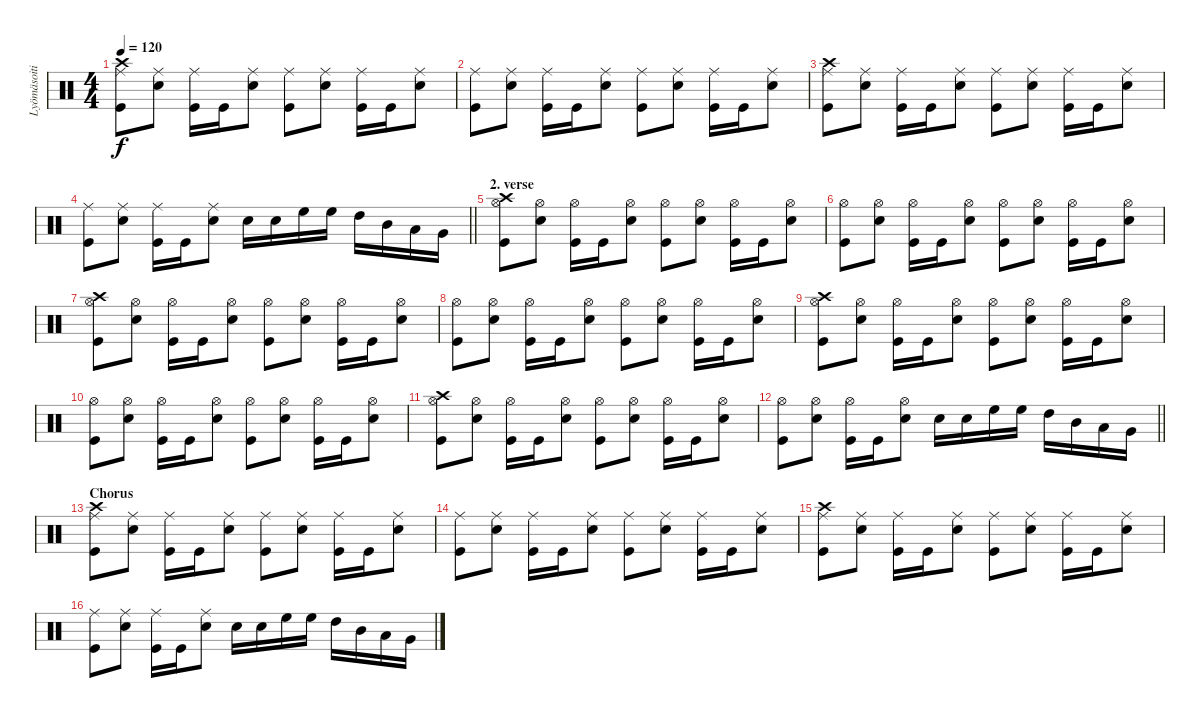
\track ("Lyömäsoitin" "Lyömäsoiti") {instrument percussion}
\staff {score}
\articulation defaults
\ts (4 4)
\tempo 120
\clef neutral
\ks c
("Ride (middle)" "Kick (hit)" "Crash high (hit)").8{dy f} ("Ride (middle)" "Snare (hit) 2").8 ("Ride (middle)" "Kick (hit)").16 "Kick (hit)".16 ("Ride (middle)" "Snare (hit) 2").8 ("Ride (middle)" "Kick (hit)").8 ("Ride (middle)" "Snare (hit) 2").8 ("Ride (middle)" "Kick (hit)").16 "Kick (hit)".16 ("Ride (middle)" "Snare (hit) 2").8 |
("Ride (middle)" "Kick (hit)").8 ("Ride (middle)" "Snare (hit) 2").8 ("Ride (middle)" "Kick (hit)").16 "Kick (hit)".16 ("Ride (middle)" "Snare (hit) 2").8 ("Ride (middle)" "Kick (hit)").8 ("Ride (middle)" "Snare (hit) 2").8 ("Ride (middle)" "Kick (hit)").16 "Kick (hit)".16 ("Ride (middle)" "Snare (hit) 2").8 |
("Ride (middle)" "Kick (hit)" "Crash high (hit)").8 ("Ride (middle)" "Snare (hit) 2").8 ("Ride (middle)" "Kick (hit)").16 "Kick (hit)".16 ("Ride (middle)" "Snare (hit) 2").8 ("Ride (middle)" "Kick (hit)").8 ("Ride (middle)" "Snare (hit) 2").8 ("Ride (middle)" "Kick (hit)").16 "Kick (hit)".16 ("Ride (middle)" "Snare (hit) 2").8 |
\barLineRight lightlight
("Ride (middle)" "Kick (hit)").8 ("Ride (middle)" "Snare (hit) 2").8 ("Ride (middle)" "Kick (hit)").16 "Kick (hit)".16 ("Ride (middle)" "Snare (hit) 2").8 "Snare (hit) 2".16 "Snare (hit) 2".16 "High Floor Tom (hit)".16 "High Floor Tom (hit)".16 "High Tom (hit)".16 "Mid Tom (hit)".16 "Low Tom (hit)".16 "Very Low Tom (hit)".16 |
\section ("" "2. verse")
("Hi-Hat (open)" "Kick (hit)" "Crash high (hit)").8 ("Hi-Hat (open)" "Snare (hit) 2").8 ("Hi-Hat (open)" "Kick (hit)").16 "Kick (hit)".16 ("Hi-Hat (open)" "Snare (hit) 2").8 ("Hi-Hat (open)" "Kick (hit)").8 ("Hi-Hat (open)" "Snare (hit) 2").8 ("Hi-Hat (open)" "Kick (hit)").16 "Kick (hit)".16 ("Hi-Hat (open)" "Snare (hit) 2").8 |
("Hi-Hat (open)" "Kick (hit)").8 ("Hi-Hat (open)" "Snare (hit) 2").8 ("Hi-Hat (open)" "Kick (hit)").16 "Kick (hit)".16 ("Hi-Hat (open)" "Snare (hit) 2").8 ("Hi-Hat (open)" "Kick (hit)").8 ("Hi-Hat (open)" "Snare (hit) 2").8 ("Hi-Hat (open)" "Kick (hit)").16 "Kick (hit)".16 ("Hi-Hat (open)" "Snare (hit) 2").8 |
("Hi-Hat (open)" "Kick (hit)" "Crash high (hit)").8 ("Hi-Hat (open)" "Snare (hit) 2").8 ("Hi-Hat (open)" "Kick (hit)").16 "Kick (hit)".16 ("Hi-Hat (open)" "Snare (hit) 2").8 ("Hi-Hat (open)" "Kick (hit)").8 ("Hi-Hat (open)" "Snare (hit) 2").8 ("Hi-Hat (open)" "Kick (hit)").16 "Kick (hit)".16 ("Hi-Hat (open)" "Snare (hit) 2").8 |
("Hi-Hat (open)" "Kick (hit)").8 ("Hi-Hat (open)" "Snare (hit) 2").8 ("Hi-Hat (open)" "Kick (hit)").16 "Kick (hit)".16 ("Hi-Hat (open)" "Snare (hit) 2").8 ("Hi-Hat (open)" "Kick (hit)").8 ("Hi-Hat (open)" "Snare (hit) 2").8 ("Hi-Hat (open)" "Kick (hit)").16 "Kick (hit)".16 ("Hi-Hat (open)" "Snare (hit) 2").8 |
("Hi-Hat (open)" "Kick (hit)" "Crash high (hit)").8 ("Hi-Hat (open)" "Snare (hit) 2").8 ("Hi-Hat (open)" "Kick (hit)").16 "Kick (hit)".16 ("Hi-Hat (open)" "Snare (hit) 2").8 ("Hi-Hat (open)" "Kick (hit)").8 ("Hi-Hat (open)" "Snare (hit) 2").8 ("Hi-Hat (open)" "Kick (hit)").16 "Kick (hit)".16 ("Hi-Hat (open)" "Snare (hit) 2").8 |
("Hi-Hat (open)" "Kick (hit)").8 ("Hi-Hat (open)" "Snare (hit) 2").8 ("Hi-Hat (open)" "Kick (hit)").16 "Kick (hit)".16 ("Hi-Hat (open)" "Snare (hit) 2").8 ("Hi-Hat (open)" "Kick (hit)").8 ("Hi-Hat (open)" "Snare (hit) 2").8 ("Hi-Hat (open)" "Kick (hit)").16 "Kick (hit)".16 ("Hi-Hat (open)" "Snare (hit) 2").8 |
("Hi-Hat (open)" "Kick (hit)" "Crash high (hit)").8 ("Hi-Hat (open)" "Snare (hit) 2").8 ("Hi-Hat (open)" "Kick (hit)").16 "Kick (hit)".16 ("Hi-Hat (open)" "Snare (hit) 2").8 ("Hi-Hat (open)" "Kick (hit)").8 ("Hi-Hat (open)" "Snare (hit) 2").8 ("Hi-Hat (open)" "Kick (hit)").16 "Kick (hit)".16 ("Hi-Hat (open)" "Snare (hit) 2").8 |
\barLineRight lightlight
("Hi-Hat (open)" "Kick (hit)").8 ("Hi-Hat (open)" "Snare (hit) 2").8 ("Hi-Hat (open)" "Kick (hit)").16 "Kick (hit)".16 ("Hi-Hat (open)" "Snare (hit) 2").8 "Snare (hit) 2".16 "Snare (hit) 2".16 "High Floor Tom (hit)".16 "High Floor Tom (hit)".16 "High Tom (hit)".16 "Mid Tom (hit)".16 "Low Tom (hit)".16 "Very Low Tom (hit)".16 |
\section ("" "Chorus")
("Ride (middle)" "Kick (hit)" "Crash high (hit)").8 ("Ride (middle)" "Snare (hit) 2").8 ("Ride (middle)" "Kick (hit)").16 "Kick (hit)".16 ("Ride (middle)" "Snare (hit) 2").8 ("Ride (middle)" "Kick (hit)").8 ("Ride (middle)" "Snare (hit) 2").8 ("Ride (middle)" "Kick (hit)").16 "Kick (hit)".16 ("Ride (middle)" "Snare (hit) 2").8 |
("Ride (middle)" "Kick (hit)").8 ("Ride (middle)" "Snare (hit) 2").8 ("Ride (middle)" "Kick (hit)").16 "Kick (hit)".16 ("Ride (middle)" "Snare (hit) 2").8 ("Ride (middle)" "Kick (hit)").8 ("Ride (middle)" "Snare (hit) 2").8 ("Ride (middle)" "Kick (hit)").16 "Kick (hit)".16 ("Ride (middle)" "Snare (hit) 2").8 |
("Ride (middle)" "Kick (hit)" "Crash high (hit)").8 ("Ride (middle)" "Snare (hit) 2").8 ("Ride (middle)" "Kick (hit)").16 "Kick (hit)".16 ("Ride (middle)" "Snare (hit) 2").8 ("Ride (middle)" "Kick (hit)").8 ("Ride (middle)" "Snare (hit) 2").8 ("Ride (middle)" "Kick (hit)").16 "Kick (hit)".16 ("Ride (middle)" "Snare (hit) 2").8 |
("Ride (middle)" "Kick (hit)").8 ("Ride (middle)" "Snare (hit) 2").8 ("Ride (middle)" "Kick (hit)").16 "Kick (hit)".16 ("Ride (middle)" "Snare (hit) 2").8 "Snare (hit) 2".16 "Snare (hit) 2".16 "High Floor Tom (hit)".16 "High Floor Tom (hit)".16 "High Tom (hit)".16 "Mid Tom (hit)".16 "Low Tom (hit)".16 "Very Low Tom (hit)".16
